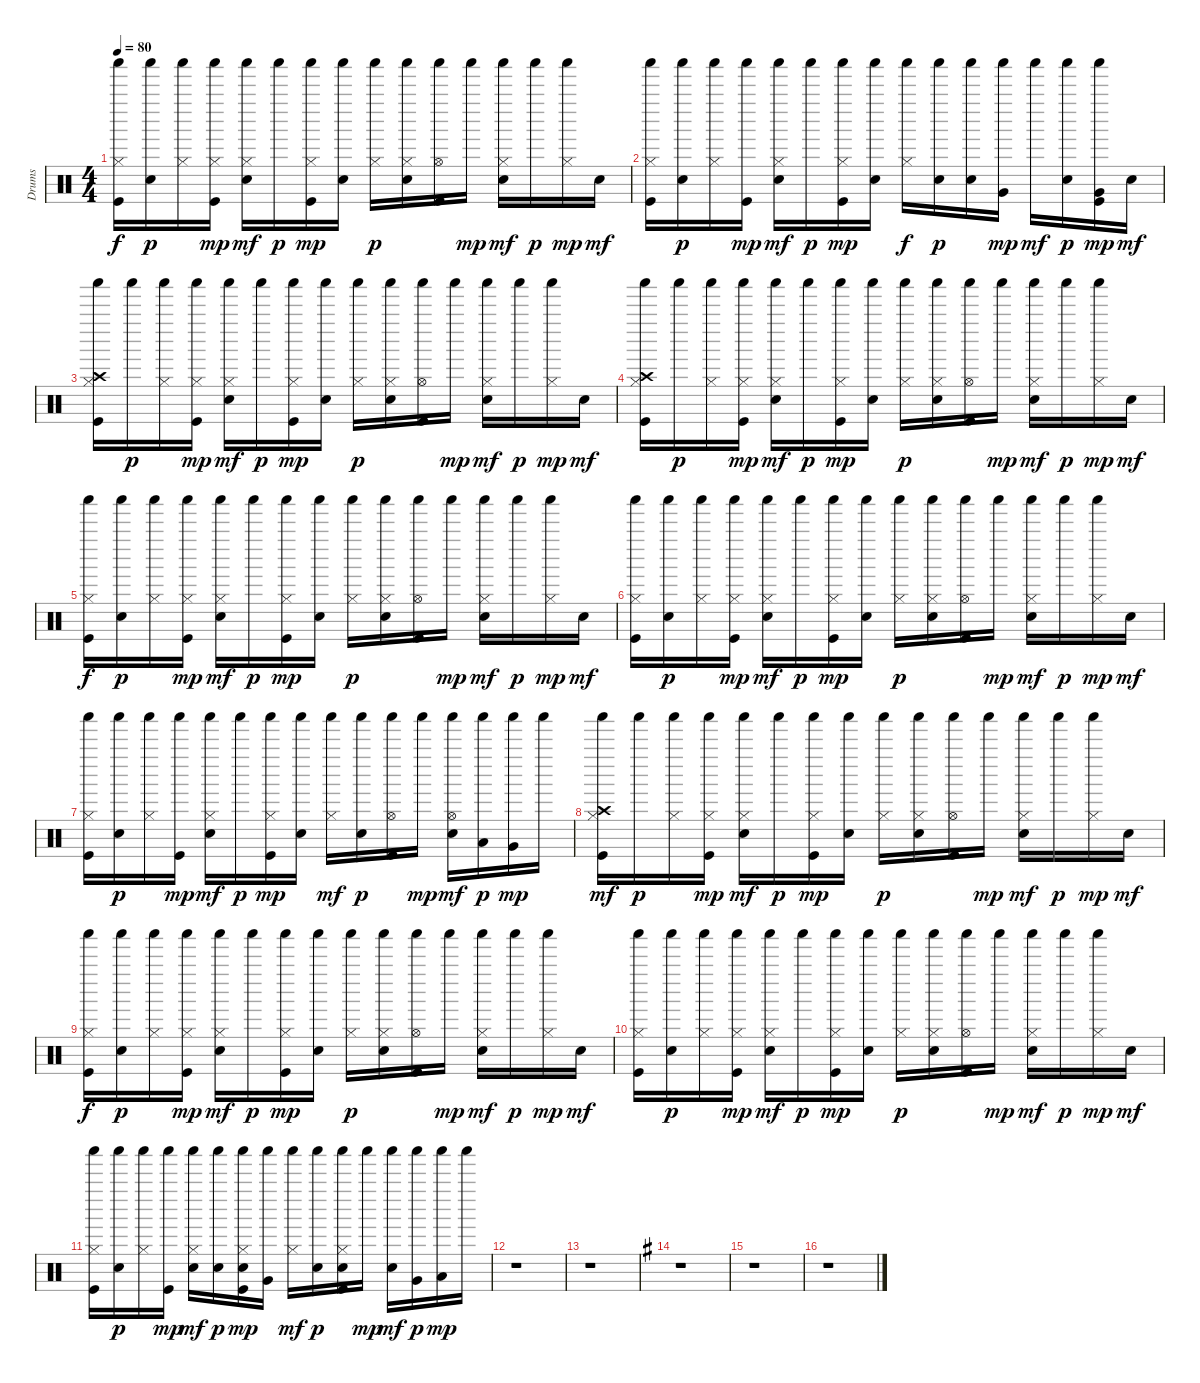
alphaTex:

\track ("Drums" "Drums") {instrument percussion}
\staff {score}
\articulation defaults
\ts (4 4)
\tempo 80
\clef neutral
\ks c
("Shaker (hit)" "Hi-Hat (closed)" "Kick (hit)").16{dy f} ("Snare (hit) 2" "Shaker (hit)").16{dy p} ("Hi-Hat (closed)" "Shaker (hit)").16 ("Kick (hit)" "Hi-Hat (closed)" "Shaker (hit)").16{dy mp} ("Snare (hit) 2" "Hi-Hat (closed)" "Shaker (hit)").16{dy mf} "Shaker (hit)".16{dy p} ("Kick (hit)" "Hi-Hat (closed)" "Shaker (hit)").16{dy mp} ("Snare (hit) 2" "Shaker (hit)").16 ("Hi-Hat (closed)" "Shaker (hit)").16{dy p} ("Snare (hit) 2" "Hi-Hat (closed)" "Shaker (hit)").16 ("Kick (hit)" "Hi-Hat (open)" "Shaker (hit)").16 "Shaker (hit)".16{dy mp} ("Snare (hit) 2" "Hi-Hat (closed)" "Shaker (hit)").16{dy mf} "Shaker (hit)".16{dy p} ("Hi-Hat (closed)" "Shaker (hit)").16{dy mp} "Snare (hit) 2".16{dy mf} |
("Kick (hit)" "Hi-Hat (closed)" "Shaker (hit)").16 ("Snare (hit) 2" "Shaker (hit)").16{dy p} ("Hi-Hat (closed)" "Shaker (hit)").16 ("Kick (hit)" "Shaker (hit)").16{dy mp} ("Snare (hit) 2" "Hi-Hat (closed)" "Shaker (hit)").16{dy mf} "Shaker (hit)".16{dy p} ("Kick (hit)" "Hi-Hat (closed)" "Shaker (hit)").16{dy mp} ("Snare (hit) 2" "Shaker (hit)").16 ("Hi-Hat (closed)" "Shaker (hit)").16{dy f} ("Snare (hit) 2" "Shaker (hit)").16{dy p} ("Snare (hit) 2" "Shaker (hit)").16 ("Very Low Tom (hit)" "Shaker (hit)").16{dy mp} "Shaker (hit)".16{dy mf} ("Snare (hit) 2" "Shaker (hit)").16{dy p} ("Kick (hit)" "Very Low Tom (hit)" "Shaker (hit)").16{dy mp} "Snare (hit) 2".16{dy mf} |
("Kick (hit)" "Crash high (hit)" "Hi-Hat (closed)" "Shaker (hit)").16 "Shaker (hit)".16{dy p} ("Hi-Hat (closed)" "Shaker (hit)").16 ("Kick (hit)" "Hi-Hat (closed)" "Shaker (hit)").16{dy mp} ("Snare (hit) 2" "Hi-Hat (closed)" "Shaker (hit)").16{dy mf} "Shaker (hit)".16{dy p} ("Kick (hit)" "Hi-Hat (closed)" "Shaker (hit)").16{dy mp} ("Snare (hit) 2" "Shaker (hit)").16 ("Hi-Hat (closed)" "Shaker (hit)").16{dy p} ("Snare (hit) 2" "Hi-Hat (closed)" "Shaker (hit)").16 ("Kick (hit)" "Hi-Hat (open)" "Shaker (hit)").16 "Shaker (hit)".16{dy mp} ("Snare (hit) 2" "Hi-Hat (closed)" "Shaker (hit)").16{dy mf} "Shaker (hit)".16{dy p} ("Hi-Hat (closed)" "Shaker (hit)").16{dy mp} "Snare (hit) 2".16{dy mf} |
("Kick (hit)" "Crash high (hit)" "Hi-Hat (closed)" "Shaker (hit)").16 "Shaker (hit)".16{dy p} ("Hi-Hat (closed)" "Shaker (hit)").16 ("Kick (hit)" "Hi-Hat (closed)" "Shaker (hit)").16{dy mp} ("Snare (hit) 2" "Hi-Hat (closed)" "Shaker (hit)").16{dy mf} "Shaker (hit)".16{dy p} ("Kick (hit)" "Hi-Hat (closed)" "Shaker (hit)").16{dy mp} ("Snare (hit) 2" "Shaker (hit)").16 ("Hi-Hat (closed)" "Shaker (hit)").16{dy p} ("Snare (hit) 2" "Hi-Hat (closed)" "Shaker (hit)").16 ("Kick (hit)" "Hi-Hat (open)" "Shaker (hit)").16 "Shaker (hit)".16{dy mp} ("Snare (hit) 2" "Hi-Hat (closed)" "Shaker (hit)").16{dy mf} "Shaker (hit)".16{dy p} ("Hi-Hat (closed)" "Shaker (hit)").16{dy mp} "Snare (hit) 2".16{dy mf} |
("Shaker (hit)" "Hi-Hat (closed)" "Kick (hit)").16{dy f} ("Snare (hit) 2" "Shaker (hit)").16{dy p} ("Hi-Hat (closed)" "Shaker (hit)").16 ("Kick (hit)" "Hi-Hat (closed)" "Shaker (hit)").16{dy mp} ("Snare (hit) 2" "Hi-Hat (closed)" "Shaker (hit)").16{dy mf} "Shaker (hit)".16{dy p} ("Kick (hit)" "Hi-Hat (closed)" "Shaker (hit)").16{dy mp} ("Snare (hit) 2" "Shaker (hit)").16 ("Hi-Hat (closed)" "Shaker (hit)").16{dy p} ("Snare (hit) 2" "Hi-Hat (closed)" "Shaker (hit)").16 ("Kick (hit)" "Hi-Hat (open)" "Shaker (hit)").16 "Shaker (hit)".16{dy mp} ("Snare (hit) 2" "Hi-Hat (closed)" "Shaker (hit)").16{dy mf} "Shaker (hit)".16{dy p} ("Hi-Hat (closed)" "Shaker (hit)").16{dy mp} "Snare (hit) 2".16{dy mf} |
("Kick (hit)" "Hi-Hat (closed)" "Shaker (hit)").16 ("Snare (hit) 2" "Shaker (hit)").16{dy p} ("Hi-Hat (closed)" "Shaker (hit)").16 ("Kick (hit)" "Hi-Hat (closed)" "Shaker (hit)").16{dy mp} ("Snare (hit) 2" "Hi-Hat (closed)" "Shaker (hit)").16{dy mf} "Shaker (hit)".16{dy p} ("Kick (hit)" "Hi-Hat (closed)" "Shaker (hit)").16{dy mp} ("Snare (hit) 2" "Shaker (hit)").16 ("Hi-Hat (closed)" "Shaker (hit)").16{dy p} ("Snare (hit) 2" "Hi-Hat (closed)" "Shaker (hit)").16 ("Kick (hit)" "Hi-Hat (open)" "Shaker (hit)").16 "Shaker (hit)".16{dy mp} ("Snare (hit) 2" "Hi-Hat (closed)" "Shaker (hit)").16{dy mf} "Shaker (hit)".16{dy p} ("Hi-Hat (closed)" "Shaker (hit)").16{dy mp} "Snare (hit) 2".16{dy mf} |
("Kick (hit)" "Hi-Hat (closed)" "Shaker (hit)").16 ("Snare (hit) 2" "Shaker (hit)").16{dy p} ("Hi-Hat (closed)" "Shaker (hit)").16 ("Kick (hit)" "Shaker (hit)").16{dy mp} ("Snare (hit) 2" "Hi-Hat (closed)" "Shaker (hit)").16{dy mf} "Shaker (hit)".16{dy p} ("Kick (hit)" "Hi-Hat (closed)" "Shaker (hit)").16{dy mp} ("Snare (hit) 2" "Shaker (hit)").16 ("Hi-Hat (closed)" "Shaker (hit)").16{dy mf} ("Snare (hit) 2" "Shaker (hit)").16{dy p} ("Kick (hit)" "Hi-Hat (open)" "Shaker (hit)").16 "Shaker (hit)".16{dy mp} ("Snare (hit) 2" "Hi-Hat (open)" "Shaker (hit)").16{dy mf} ("Low Floor Tom (hit)" "Shaker (hit)").16{dy p} ("Very Low Tom (hit)" "Shaker (hit)").16{dy mp} "Shaker (hit)".16 |
("Kick (hit)" "Crash high (hit)" "Hi-Hat (closed)" "Shaker (hit)").16{dy mf} "Shaker (hit)".16{dy p} ("Hi-Hat (closed)" "Shaker (hit)").16 ("Kick (hit)" "Hi-Hat (closed)" "Shaker (hit)").16{dy mp} ("Snare (hit) 2" "Hi-Hat (closed)" "Shaker (hit)").16{dy mf} "Shaker (hit)".16{dy p} ("Kick (hit)" "Hi-Hat (closed)" "Shaker (hit)").16{dy mp} ("Snare (hit) 2" "Shaker (hit)").16 ("Hi-Hat (closed)" "Shaker (hit)").16{dy p} ("Snare (hit) 2" "Hi-Hat (closed)" "Shaker (hit)").16 ("Kick (hit)" "Hi-Hat (open)" "Shaker (hit)").16 "Shaker (hit)".16{dy mp} ("Snare (hit) 2" "Hi-Hat (closed)" "Shaker (hit)").16{dy mf} "Shaker (hit)".16{dy p} ("Hi-Hat (closed)" "Shaker (hit)").16{dy mp} "Snare (hit) 2".16{dy mf} |
("Hi-Hat (closed)" "Kick (hit)" "Shaker (hit)").16{dy f} ("Snare (hit) 2" "Shaker (hit)").16{dy p} ("Hi-Hat (closed)" "Shaker (hit)").16 ("Kick (hit)" "Hi-Hat (closed)" "Shaker (hit)").16{dy mp} ("Snare (hit) 2" "Hi-Hat (closed)" "Shaker (hit)").16{dy mf} "Shaker (hit)".16{dy p} ("Kick (hit)" "Hi-Hat (closed)" "Shaker (hit)").16{dy mp} ("Snare (hit) 2" "Shaker (hit)").16 ("Hi-Hat (closed)" "Shaker (hit)").16{dy p} ("Snare (hit) 2" "Hi-Hat (closed)" "Shaker (hit)").16 ("Kick (hit)" "Hi-Hat (open)" "Shaker (hit)").16 "Shaker (hit)".16{dy mp} ("Snare (hit) 2" "Hi-Hat (closed)" "Shaker (hit)").16{dy mf} "Shaker (hit)".16{dy p} ("Hi-Hat (closed)" "Shaker (hit)").16{dy mp} "Snare (hit) 2".16{dy mf} |
("Kick (hit)" "Hi-Hat (closed)" "Shaker (hit)").16 ("Snare (hit) 2" "Shaker (hit)").16{dy p} ("Hi-Hat (closed)" "Shaker (hit)").16 ("Kick (hit)" "Hi-Hat (closed)" "Shaker (hit)").16{dy mp} ("Snare (hit) 2" "Hi-Hat (closed)" "Shaker (hit)").16{dy mf} "Shaker (hit)".16{dy p} ("Kick (hit)" "Hi-Hat (closed)" "Shaker (hit)").16{dy mp} ("Snare (hit) 2" "Shaker (hit)").16 ("Hi-Hat (closed)" "Shaker (hit)").16{dy p} ("Snare (hit) 2" "Hi-Hat (closed)" "Shaker (hit)").16 ("Kick (hit)" "Hi-Hat (open)" "Shaker (hit)").16 "Shaker (hit)".16{dy mp} ("Snare (hit) 2" "Hi-Hat (closed)" "Shaker (hit)").16{dy mf} "Shaker (hit)".16{dy p} ("Hi-Hat (closed)" "Shaker (hit)").16{dy mp} "Snare (hit) 2".16{dy mf} |
("Kick (hit)" "Hi-Hat (closed)" "Shaker (hit)").16 ("Snare (hit) 2" "Shaker (hit)").16{dy p} ("Hi-Hat (closed)" "Shaker (hit)").16 ("Kick (hit)" "Shaker (hit)").16{dy mp} ("Snare (hit) 2" "Hi-Hat (closed)" "Shaker (hit)").16{dy mf} ("Snare (hit) 2" "Shaker (hit)").16{dy p} ("Kick (hit)" "Snare (hit) 2" "Hi-Hat (closed)" "Shaker (hit)").16{dy mp} ("Very Low Tom (hit)" "Shaker (hit)").16 ("Hi-Hat (closed)" "Shaker (hit)").16{dy mf} ("Snare (hit) 2" "Shaker (hit)").16{dy p} ("Kick (hit)" "Snare (hit) 2" "Hi-Hat (closed)" "Shaker (hit)").16 "Shaker (hit)".16{dy mp} ("Snare (hit) 2" "Shaker (hit)").16{dy mf} ("Very Low Tom (hit)" "Shaker (hit)").16{dy p} ("Low Floor Tom (hit)" "Shaker (hit)").16{dy mp} "Shaker (hit)".16 |
r.1 |
r.1 |
\ks g
r.1 |
r.1 |
r.1
